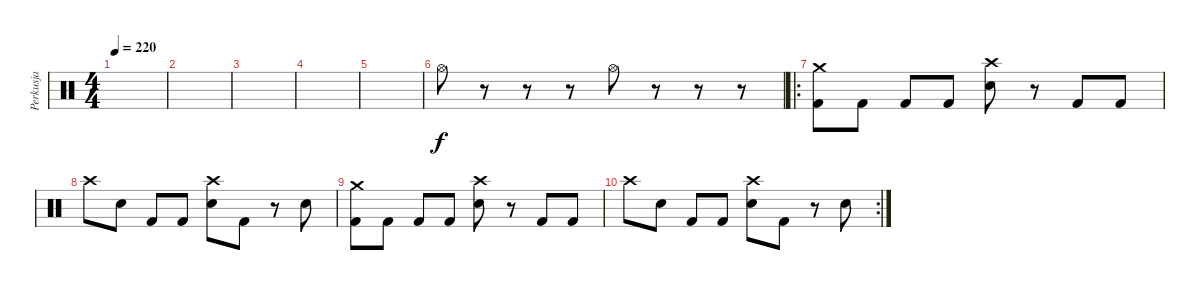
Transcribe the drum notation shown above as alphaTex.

\track ("Perkusja" "Perkusja") {instrument percussion}
\staff {score}
\articulation defaults
\ts (4 4)
\tempo 220
\clef neutral
\ks c
|
|
|
|
|
"Hi-Hat (open)".8 r.8 r.8 r.8 "Hi-Hat (open)".8 r.8 r.8 r.8 |
\ro
("Crash medium (hit)" "Kick (hit) 2").8 "Kick (hit) 2".8 "Kick (hit) 2".8 "Kick (hit) 2".8 ("Crash high (hit)" "Snare (hit) 2").8 r.8 "Kick (hit) 2".8 "Kick (hit) 2".8 |
"Crash high (hit)".8 "Snare (hit) 2".8 "Kick (hit) 2".8 "Kick (hit) 2".8 ("Crash high (hit)" "Snare (hit) 2").8 "Kick (hit) 2".8 r.8 "Snare (hit) 2".8 |
("Crash medium (hit)" "Kick (hit) 2").8 "Kick (hit) 2".8 "Kick (hit) 2".8 "Kick (hit) 2".8 ("Crash high (hit)" "Snare (hit) 2").8 r.8 "Kick (hit) 2".8 "Kick (hit) 2".8 |
\rc 2 "Crash high (hit)".8 "Snare (hit) 2".8 "Kick (hit) 2".8 "Kick (hit) 2".8
("Crash high (hit)" "Snare (hit) 2").8 "Kick (hit) 2".8 r.8 "Snare (hit) 2".8
